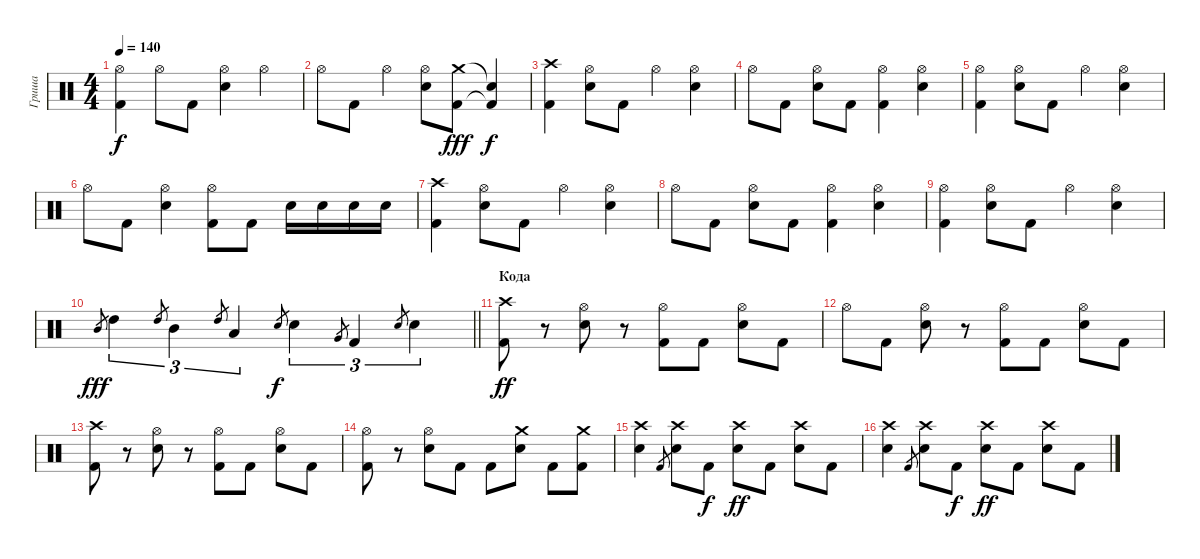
\track ("Гриша" "Гриша") {instrument percussion}
\staff {score}
\articulation defaults
\ts (4 4)
\tempo 140
\clef neutral
\ks c
("Hi-Hat (open)" "Kick (hit) 2").4{dy f} "Hi-Hat (open)".8 "Kick (hit) 2".8 ("Hi-Hat (open)" "Electric Snare (hit)").4 "Hi-Hat (open)".4 |
"Hi-Hat (open)".8 "Kick (hit) 2".8 "Hi-Hat (open)".4 ("Hi-Hat (open)" "Electric Snare (hit)").8 ("Crash medium (hit)" "Kick (hit) 2").8{dy fff} ("Snare (hit)"{t} "Kick (hit) 2"{t}).4{dy f} |
("Crash high (hit)" "Kick (hit) 2").4 ("Hi-Hat (open)" "Electric Snare (hit)").8 "Kick (hit) 2".8 "Hi-Hat (open)".4 ("Hi-Hat (open)" "Electric Snare (hit)").4 |
"Hi-Hat (open)".8 "Kick (hit) 2".8 ("Hi-Hat (open)" "Electric Snare (hit)").8 "Kick (hit) 2".8 ("Hi-Hat (open)" "Kick (hit) 2").4 ("Hi-Hat (open)" "Electric Snare (hit)").4 |
("Hi-Hat (open)" "Kick (hit) 2").4 ("Hi-Hat (open)" "Electric Snare (hit)").8 "Kick (hit) 2".8 "Hi-Hat (open)".4 ("Hi-Hat (open)" "Electric Snare (hit)").4 |
"Hi-Hat (open)".8 "Kick (hit) 2".8 ("Hi-Hat (open)" "Electric Snare (hit)").4 ("Hi-Hat (open)" "Kick (hit) 2").8 "Kick (hit) 2".8 "Electric Snare (hit)".16 "Electric Snare (hit)".16 "Electric Snare (hit)".16 "Electric Snare (hit)".16 |
("Crash high (hit)" "Kick (hit) 2").4 ("Hi-Hat (open)" "Electric Snare (hit)").8 "Kick (hit) 2".8 "Hi-Hat (open)".4 ("Hi-Hat (open)" "Electric Snare (hit)").4 |
"Hi-Hat (open)".8 "Kick (hit) 2".8 ("Hi-Hat (open)" "Electric Snare (hit)").8 "Kick (hit) 2".8 ("Hi-Hat (open)" "Kick (hit) 2").4 ("Hi-Hat (open)" "Electric Snare (hit)").4 |
("Hi-Hat (open)" "Kick (hit) 2").4 ("Hi-Hat (open)" "Electric Snare (hit)").8 "Kick (hit) 2".8 "Hi-Hat (open)".4 ("Hi-Hat (open)" "Electric Snare (hit)").4 |
\barLineRight lightlight "Mid Tom (hit)".8{gr dy fff} "High Tom (hit)".4{tu (3 2)} "High Tom (hit)".8{gr} "Mid Tom (hit)".4{tu (3 2)} "High Tom (hit)".8{gr} "Low Tom (hit)".4{tu (3 2)} "Electric Snare (hit)".8{gr dy f} "Electric Snare (hit)".4{tu (3 2)} "Very Low Tom (hit)".8{gr} "Kick (hit) 2".4{tu (3 2)} "Electric Snare (hit)".8{gr} "Electric Snare (hit)".4{tu (3 2)}
|
\section ("" "Кода")
("Crash high (hit)" "Kick (hit) 2").8{dy ff} r.8 ("Hi-Hat (open)" "Electric Snare (hit)").8 r.8 ("Hi-Hat (open)" "Kick (hit) 2").8 "Kick (hit) 2".8 ("Hi-Hat (open)" "Electric Snare (hit)").8 "Kick (hit) 2".8 |
"Hi-Hat (open)".8 "Kick (hit) 2".8 ("Hi-Hat (open)" "Electric Snare (hit)").8 r.8 ("Hi-Hat (open)" "Kick (hit) 2").8 "Kick (hit) 2".8 ("Hi-Hat (open)" "Electric Snare (hit)").8 "Kick (hit) 2".8 |
("Crash high (hit)" "Kick (hit) 2").8 r.8 ("Hi-Hat (open)" "Electric Snare (hit)").8 r.8 ("Hi-Hat (open)" "Kick (hit) 2").8 "Kick (hit) 2".8 ("Hi-Hat (open)" "Electric Snare (hit)").8 "Kick (hit) 2".8 |
("Hi-Hat (open)" "Kick (hit) 2").8 r.8 ("Hi-Hat (open)" "Electric Snare (hit)").8 "Kick (hit) 2".8 "Kick (hit) 2".8 ("Crash medium (hit)" "Electric Snare (hit)").8 "Kick (hit) 2".8 ("Crash medium (hit)" "Kick (hit) 2").8 |
("Crash high (hit)" "Electric Snare (hit)").4 "Kick (hit) 2".8{gr} ("Crash high (hit)" "Electric Snare (hit)").8 "Kick (hit) 2".8{dy f} ("Crash high (hit)" "Electric Snare (hit)").8{dy ff} "Kick (hit) 2".8 ("Crash high (hit)" "Electric Snare (hit)").8 "Kick (hit) 2".8 |
("Crash high (hit)" "Electric Snare (hit)").4 "Kick (hit) 2".8{gr} ("Crash high (hit)" "Electric Snare (hit)").8 "Kick (hit) 2".8{dy f} ("Crash high (hit)" "Electric Snare (hit)").8{dy ff} "Kick (hit) 2".8 ("Crash high (hit)" "Electric Snare (hit)").8 "Kick (hit) 2".8
